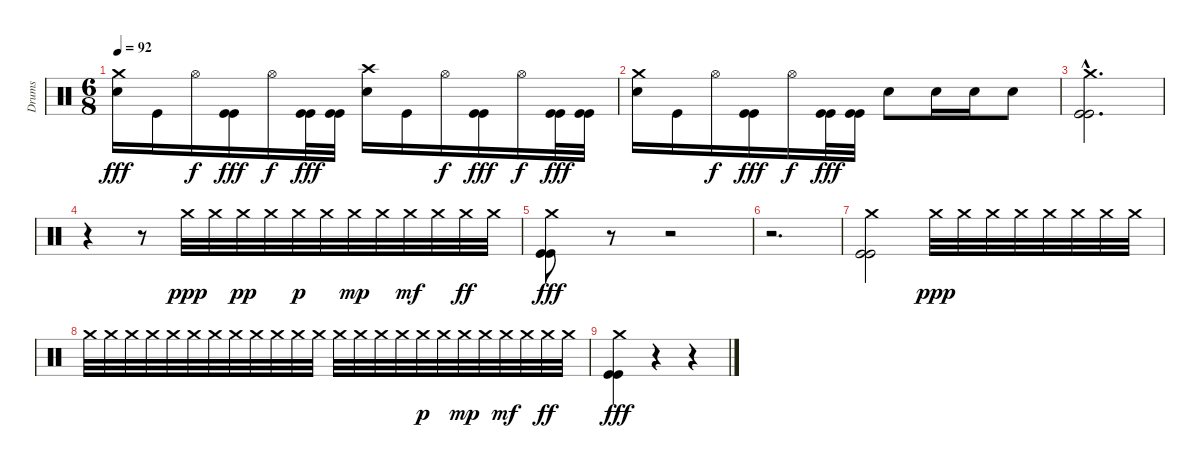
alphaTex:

\track ("Drums" "Drums") {instrument percussion}
\staff {score}
\articulation defaults
\ts (6 8)
\tempo 92
\clef neutral
\ks c
("Crash medium (hit)" "Snare (hit) 2").16{dy fff} "Kick (hit)".16 "Hi-Hat (open)".16{dy f} ("Kick (hit)" "Kick (hit)").16{dy fff} "Hi-Hat (open)".16{dy f} ("Kick (hit)" "Kick (hit)").32{dy fff} ("Kick (hit)" "Kick (hit)").32 ("Crash high (hit)" "Snare (hit) 2").16 "Kick (hit)".16 "Hi-Hat (open)".16{dy f} ("Kick (hit)" "Kick (hit)").16{dy fff} "Hi-Hat (open)".16{dy f} ("Kick (hit)" "Kick (hit)").32{dy fff} ("Kick (hit)" "Kick (hit)").32 |
("Crash medium (hit)" "Snare (hit) 2").16 "Kick (hit)".16 "Hi-Hat (open)".16{dy f} ("Kick (hit)" "Kick (hit)").16{dy fff} "Hi-Hat (open)".16{dy f} ("Kick (hit)" "Kick (hit)").32{dy fff} ("Kick (hit)" "Kick (hit)").32 "Snare (hit) 2".8 "Snare (hit) 2".16 "Snare (hit) 2".16 "Snare (hit) 2".8 |
("Crash medium (hit)"{hac} "Kick (hit)"{hac} "Kick (hit)"{hac}).2{d} |
r.4 r.8 "Crash medium (hit)".32{dy ppp} "Crash medium (hit)".32 "Crash medium (hit)".32{dy pp} "Crash medium (hit)".32 "Crash medium (hit)".32{dy p} "Crash medium (hit)".32 "Crash medium (hit)".32{dy mp} "Crash medium (hit)".32 "Crash medium (hit)".32{dy mf} "Crash medium (hit)".32 "Crash medium (hit)".32{dy ff} "Crash medium (hit)".32 |
("Crash medium (hit)" "Kick (hit)" "Kick (hit)").8{dy fff} r.8{volume 0} r.2 |
r.2{d volume 16} |
("Crash medium (hit)" "Kick (hit)" "Kick (hit)").2 "Crash medium (hit)".32{dy ppp} "Crash medium (hit)".32 "Crash medium (hit)".32 "Crash medium (hit)".32 "Crash medium (hit)".32 "Crash medium (hit)".32 "Crash medium (hit)".32 "Crash medium (hit)".32 |
"Crash medium (hit)".32 "Crash medium (hit)".32 "Crash medium (hit)".32 "Crash medium (hit)".32 "Crash medium (hit)".32 "Crash medium (hit)".32 "Crash medium (hit)".32 "Crash medium (hit)".32 "Crash medium (hit)".32 "Crash medium (hit)".32 "Crash medium (hit)".32 "Crash medium (hit)".32 "Crash medium (hit)".32 "Crash medium (hit)".32 "Crash medium (hit)".32 "Crash medium (hit)".32 "Crash medium (hit)".32{dy p} "Crash medium (hit)".32 "Crash medium (hit)".32{dy mp} "Crash medium (hit)".32 "Crash medium (hit)".32{dy mf} "Crash medium (hit)".32 "Crash medium (hit)".32{dy ff} "Crash medium (hit)".32 |
("Crash medium (hit)" "Kick (hit)" "Kick (hit)").4{dy fff} r.4 r.4
